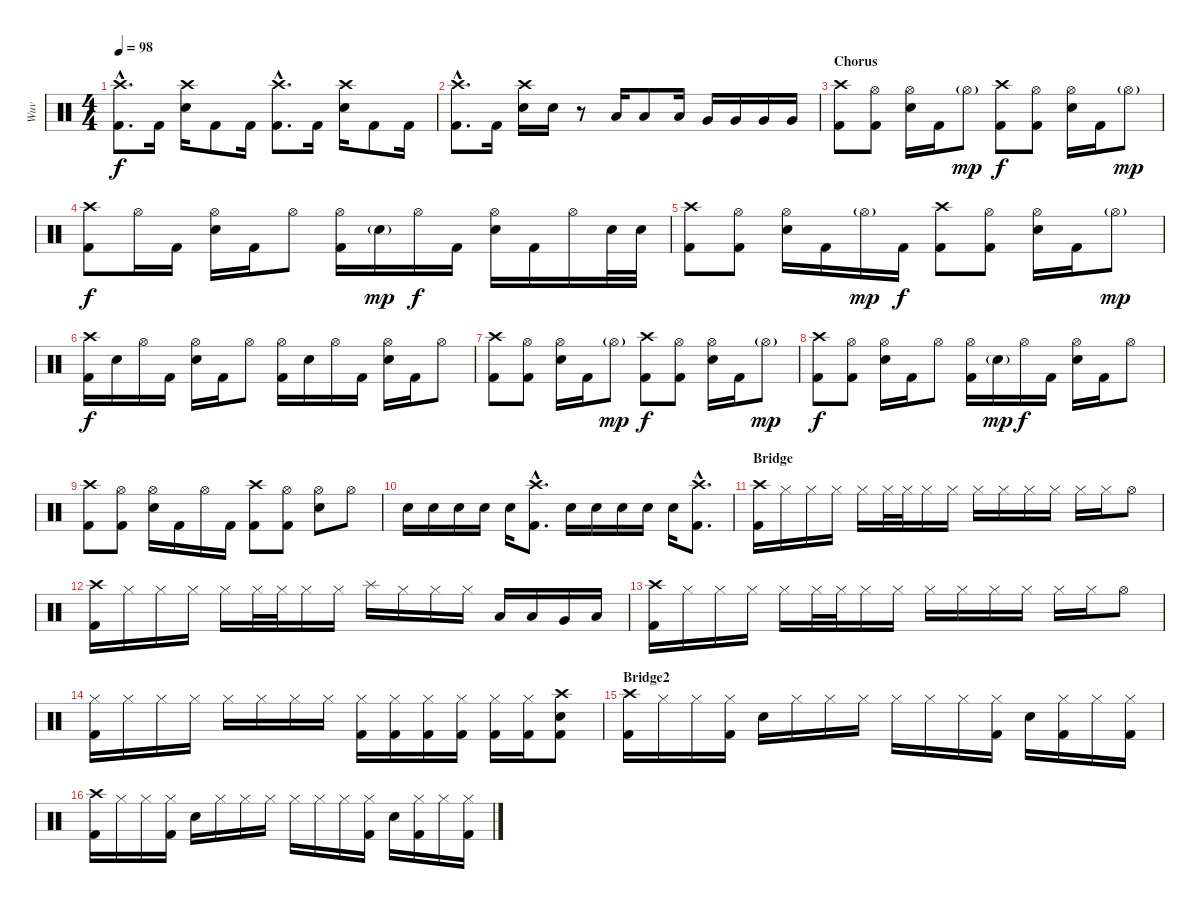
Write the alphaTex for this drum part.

\track ("Wuv" "Wuv") {instrument percussion}
\staff {score}
\articulation defaults
\ts (4 4)
\tempo 98
\clef neutral
\ks c
("Crash high (hit)"{hac} "Kick (hit) 2"{hac}).8{d dy f} "Kick (hit) 2".16 ("Crash high (hit)" "Electric Snare (hit)").16 "Kick (hit) 2".8 "Kick (hit) 2".16 ("Crash high (hit)"{hac} "Kick (hit) 2"{hac}).8{d} "Kick (hit) 2".16 ("Crash high (hit)" "Electric Snare (hit)").16 "Kick (hit) 2".8 "Kick (hit) 2".16 |
("Crash high (hit)"{hac} "Kick (hit) 2"{hac}).8{d} "Kick (hit) 2".16 ("Crash high (hit)" "Electric Snare (hit)").16 "Electric Snare (hit)".16 r.8 "Low Tom (hit)".16 "Low Tom (hit)".8 "Low Tom (hit)".16 "Very Low Tom (hit)".16 "Very Low Tom (hit)".16 "Very Low Tom (hit)".16 "Very Low Tom (hit)".16 |
\section ("" "Chorus")
("Crash high (hit)" "Kick (hit) 2").8 ("Hi-Hat (open)" "Kick (hit) 2").8 ("Hi-Hat (open)" "Electric Snare (hit)").16 "Kick (hit) 2".16 "Hi-Hat (open)"{g}.8{dy mp} ("Crash high (hit)" "Kick (hit) 2").8{dy f} ("Hi-Hat (open)" "Kick (hit) 2").8 ("Hi-Hat (open)" "Electric Snare (hit)").16 "Kick (hit) 2".16 "Hi-Hat (open)"{g}.8{dy mp} |
("Crash high (hit)" "Kick (hit) 2").8{dy f} "Hi-Hat (open)".16 "Kick (hit) 2".16 ("Hi-Hat (open)" "Electric Snare (hit)").16 "Kick (hit) 2".16 "Hi-Hat (open)".8 ("Hi-Hat (open)" "Kick (hit) 2").16 "Electric Snare (hit)"{g}.16{dy mp} "Hi-Hat (open)".16{dy f} "Kick (hit) 2".16 ("Hi-Hat (open)" "Electric Snare (hit)").16 "Kick (hit) 2".16 "Hi-Hat (open)".16 "Electric Snare (hit)".32 "Electric Snare (hit)".32 |
("Crash high (hit)" "Kick (hit) 2").8 ("Hi-Hat (open)" "Kick (hit) 2").8 ("Hi-Hat (open)" "Electric Snare (hit)").16 "Kick (hit) 2".16 "Hi-Hat (open)"{g}.16{dy mp} "Kick (hit) 2".16{dy f} ("Crash high (hit)" "Kick (hit) 2").8 ("Hi-Hat (open)" "Kick (hit) 2").8 ("Hi-Hat (open)" "Electric Snare (hit)").16 "Kick (hit) 2".16 "Hi-Hat (open)"{g}.8{dy mp} |
("Crash high (hit)" "Kick (hit) 2").16{dy f} "Electric Snare (hit)".16 "Hi-Hat (open)".16 "Kick (hit) 2".16 ("Hi-Hat (open)" "Electric Snare (hit)").16 "Kick (hit) 2".16 "Hi-Hat (open)".8 ("Hi-Hat (open)" "Kick (hit) 2").16 "Electric Snare (hit)".16 "Hi-Hat (open)".16 "Kick (hit) 2".16 ("Hi-Hat (open)" "Electric Snare (hit)").16 "Kick (hit) 2".16 "Hi-Hat (open)".8 |
("Crash high (hit)" "Kick (hit) 2").8 ("Hi-Hat (open)" "Kick (hit) 2").8 ("Hi-Hat (open)" "Electric Snare (hit)").16 "Kick (hit) 2".16 "Hi-Hat (open)"{g}.8{dy mp} ("Crash high (hit)" "Kick (hit) 2").8{dy f} ("Hi-Hat (open)" "Kick (hit) 2").8 ("Hi-Hat (open)" "Electric Snare (hit)").16 "Kick (hit) 2".16 "Hi-Hat (open)"{g}.8{dy mp} |
("Crash high (hit)" "Kick (hit) 2").8{dy f} ("Hi-Hat (open)" "Kick (hit) 2").8 ("Hi-Hat (open)" "Electric Snare (hit)").16 "Kick (hit) 2".16 "Hi-Hat (open)".8 ("Hi-Hat (open)" "Kick (hit) 2").16 "Electric Snare (hit)"{g}.16{dy mp} "Hi-Hat (open)".16{dy f} "Kick (hit) 2".16 ("Hi-Hat (open)" "Electric Snare (hit)").16 "Kick (hit) 2".16 "Hi-Hat (open)".8 |
("Crash high (hit)" "Kick (hit) 2").8 ("Hi-Hat (open)" "Kick (hit) 2").8 ("Hi-Hat (open)" "Electric Snare (hit)").16 "Kick (hit) 2".16 "Hi-Hat (open)".16 "Kick (hit) 2".16 ("Crash high (hit)" "Kick (hit) 2").8 ("Hi-Hat (open)" "Kick (hit) 2").8 ("Hi-Hat (open)" "Electric Snare (hit)").8 "Hi-Hat (open)".8 |
"Electric Snare (hit)".16 "Electric Snare (hit)".16 "Electric Snare (hit)".16 "Electric Snare (hit)".16 "Electric Snare (hit)".16 ("Crash high (hit)"{hac} "Kick (hit) 2"{hac}).8{d} "Electric Snare (hit)".16 "Electric Snare (hit)".16 "Electric Snare (hit)".16 "Electric Snare (hit)".16 "Electric Snare (hit)".16 ("Crash high (hit)"{hac} "Kick (hit) 2"{hac}).8{d} |
\section ("" "Bridge")
("Crash high (hit)" "Kick (hit) 2").16 "Hi-Hat (closed)".16 "Hi-Hat (closed)".16 "Hi-Hat (closed)".16 "Hi-Hat (closed)".16 "Hi-Hat (closed)".32 "Hi-Hat (closed)".32 "Hi-Hat (closed)".16 "Hi-Hat (closed)".16 "Hi-Hat (closed)".16 "Hi-Hat (closed)".16 "Hi-Hat (closed)".16 "Hi-Hat (closed)".16 "Hi-Hat (closed)".16 "Hi-Hat (closed)".16 "Hi-Hat (open)".8 |
("Crash high (hit)" "Kick (hit) 2").16 "Hi-Hat (closed)".16 "Hi-Hat (closed)".16 "Hi-Hat (closed)".16 "Hi-Hat (closed)".16 "Hi-Hat (closed)".32 "Hi-Hat (closed)".32 "Hi-Hat (closed)".16 "Hi-Hat (closed)".16 "Splash (hit)".16 "Hi-Hat (closed)".16 "Hi-Hat (closed)".16 "Hi-Hat (closed)".16 "Low Tom (hit)".16 "Low Tom (hit)".16 "Very Low Tom (hit)".16 "Low Floor Tom (hit)".16 |
("Crash high (hit)" "Kick (hit) 2").16 "Hi-Hat (closed)".16 "Hi-Hat (closed)".16 "Hi-Hat (closed)".16 "Hi-Hat (closed)".16 "Hi-Hat (closed)".32 "Hi-Hat (closed)".32 "Hi-Hat (closed)".16 "Hi-Hat (closed)".16 "Hi-Hat (closed)".16 "Hi-Hat (closed)".16 "Hi-Hat (closed)".16 "Hi-Hat (closed)".16 "Hi-Hat (closed)".16 "Hi-Hat (closed)".16 "Hi-Hat (open)".8 |
("Hi-Hat (closed)" "Kick (hit) 2").16 "Hi-Hat (closed)".16 "Hi-Hat (closed)".16 "Hi-Hat (closed)".16 "Hi-Hat (closed)".16 "Hi-Hat (closed)".16 "Hi-Hat (closed)".16 "Hi-Hat (closed)".16 ("Hi-Hat (closed)" "Kick (hit) 2").16 ("Hi-Hat (closed)" "Kick (hit) 2").16 ("Hi-Hat (closed)" "Kick (hit) 2").16 ("Hi-Hat (closed)" "Kick (hit) 2").16 ("Hi-Hat (closed)" "Kick (hit) 2").16 ("Hi-Hat (closed)" "Kick (hit) 2").16 ("Crash high (hit)" "Electric Snare (hit)" "Kick (hit) 2").8 |
\section ("" "Bridge2")
("Crash high (hit)" "Kick (hit) 2").16 "Hi-Hat (closed)".16 "Hi-Hat (closed)".16 ("Hi-Hat (closed)" "Kick (hit) 2").16 "Electric Snare (hit)".16 "Hi-Hat (closed)".16 "Hi-Hat (closed)".16 "Hi-Hat (closed)".16 "Hi-Hat (closed)".16 "Hi-Hat (closed)".16 "Hi-Hat (closed)".16 ("Hi-Hat (closed)" "Kick (hit) 2").16 "Electric Snare (hit)".16 ("Hi-Hat (closed)" "Kick (hit) 2").16 "Hi-Hat (closed)".16 ("Hi-Hat (closed)" "Kick (hit) 2").16 |
("Crash high (hit)" "Kick (hit) 2").16 "Hi-Hat (closed)".16 "Hi-Hat (closed)".16 ("Hi-Hat (closed)" "Kick (hit) 2").16 "Electric Snare (hit)".16 "Hi-Hat (closed)".16 "Hi-Hat (closed)".16 "Hi-Hat (closed)".16 "Hi-Hat (closed)".16 "Hi-Hat (closed)".16 "Hi-Hat (closed)".16 ("Hi-Hat (closed)" "Kick (hit) 2").16 "Electric Snare (hit)".16 ("Hi-Hat (closed)" "Kick (hit) 2").16 "Hi-Hat (closed)".16 ("Hi-Hat (closed)" "Kick (hit) 2").16
